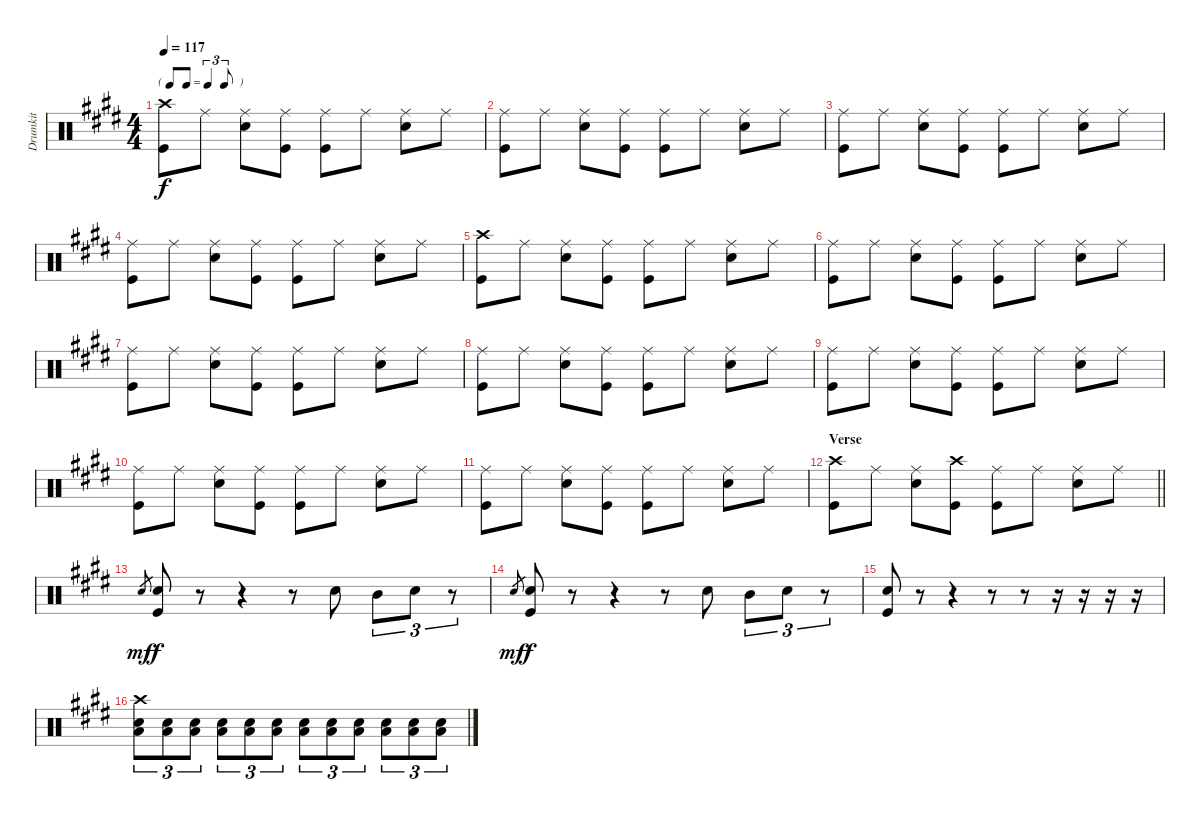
\track ("Drumkit" "Drumkit") {instrument percussion}
\staff {score}
\articulation defaults
\ts (4 4)
\tf triplet8th
\tempo 117
\clef neutral
\ks e
("Crash high (hit)" "Kick (hit)").8{dy f} "Ride (middle)".8 ("Ride (middle)" "Snare (hit) 2").8 ("Ride (middle)" "Kick (hit)").8 ("Ride (middle)" "Kick (hit)").8 "Ride (middle)".8 ("Ride (middle)" "Snare (hit) 2").8 "Ride (middle)".8 |
("Ride (middle)" "Kick (hit)").8 "Ride (middle)".8 ("Ride (middle)" "Snare (hit) 2").8 ("Ride (middle)" "Kick (hit)").8 ("Ride (middle)" "Kick (hit)").8 "Ride (middle)".8 ("Ride (middle)" "Snare (hit) 2").8 "Ride (middle)".8 |
("Ride (middle)" "Kick (hit)").8 "Ride (middle)".8 ("Ride (middle)" "Snare (hit) 2").8 ("Ride (middle)" "Kick (hit)").8 ("Ride (middle)" "Kick (hit)").8 "Ride (middle)".8 ("Ride (middle)" "Snare (hit) 2").8 "Ride (middle)".8 |
("Ride (middle)" "Kick (hit)").8 "Ride (middle)".8 ("Ride (middle)" "Snare (hit) 2").8 ("Ride (middle)" "Kick (hit)").8 ("Ride (middle)" "Kick (hit)").8 "Ride (middle)".8 ("Ride (middle)" "Snare (hit) 2").8 "Ride (middle)".8 |
("Crash high (hit)" "Kick (hit)").8 "Ride (middle)".8 ("Ride (middle)" "Snare (hit) 2").8 ("Ride (middle)" "Kick (hit)").8 ("Ride (middle)" "Kick (hit)").8 "Ride (middle)".8 ("Ride (middle)" "Snare (hit) 2").8 "Ride (middle)".8 |
("Ride (middle)" "Kick (hit)").8 "Ride (middle)".8 ("Ride (middle)" "Snare (hit) 2").8 ("Ride (middle)" "Kick (hit)").8 ("Ride (middle)" "Kick (hit)").8 "Ride (middle)".8 ("Ride (middle)" "Snare (hit) 2").8 "Ride (middle)".8 |
("Ride (middle)" "Kick (hit)").8 "Ride (middle)".8 ("Ride (middle)" "Snare (hit) 2").8 ("Ride (middle)" "Kick (hit)").8 ("Ride (middle)" "Kick (hit)").8 "Ride (middle)".8 ("Ride (middle)" "Snare (hit) 2").8 "Ride (middle)".8 |
("Ride (middle)" "Kick (hit)").8 "Ride (middle)".8 ("Ride (middle)" "Snare (hit) 2").8 ("Ride (middle)" "Kick (hit)").8 ("Ride (middle)" "Kick (hit)").8 "Ride (middle)".8 ("Ride (middle)" "Snare (hit) 2").8 "Ride (middle)".8 |
("Ride (middle)" "Kick (hit)").8 "Ride (middle)".8 ("Ride (middle)" "Snare (hit) 2").8 ("Ride (middle)" "Kick (hit)").8 ("Ride (middle)" "Kick (hit)").8 "Ride (middle)".8 ("Ride (middle)" "Snare (hit) 2").8 "Ride (middle)".8 |
("Ride (middle)" "Kick (hit)").8 "Ride (middle)".8 ("Ride (middle)" "Snare (hit) 2").8 ("Ride (middle)" "Kick (hit)").8 ("Ride (middle)" "Kick (hit)").8 "Ride (middle)".8 ("Ride (middle)" "Snare (hit) 2").8 "Ride (middle)".8 |
("Ride (middle)" "Kick (hit)").8 "Ride (middle)".8 ("Ride (middle)" "Snare (hit) 2").8 ("Ride (middle)" "Kick (hit)").8 ("Ride (middle)" "Kick (hit)").8 "Ride (middle)".8 ("Ride (middle)" "Snare (hit) 2").8 "Ride (middle)".8 |
\section ("" "Verse")
\barLineRight lightlight
("Crash high (hit)" "Kick (hit)").8 "Ride (middle)".8 ("Ride (middle)" "Snare (hit) 2").8 ("Crash high (hit)" "Kick (hit)").8 ("Ride (middle)" "Kick (hit)").8 "Ride (middle)".8 ("Ride (middle)" "Snare (hit) 2").8 "Ride (middle)".8 |
"Snare (hit)".8{gr dy mf} ("Snare (hit) 2" "Kick (hit)").8{dy f} r.8 r.4 r.8 "Snare (hit) 2".8 "Mid Tom (hit)".8{tu (3 2)} "Snare (hit) 2".8{tu (3 2)} r.8{tu (3 2)} |
"Snare (hit)".8{gr dy mf} ("Snare (hit) 2" "Kick (hit)").8{dy f} r.8 r.4 r.8 "Snare (hit) 2".8 "Mid Tom (hit)".8{tu (3 2)} "Snare (hit) 2".8{tu (3 2)} r.8{tu (3 2)} |
("Snare (hit) 2" "Kick (hit)").8 r.8 r.4 r.8 r.8 r.16 r.16 r.16 r.16 |
("Crash high (hit)" "Snare (hit) 2" "Low Floor Tom (hit)").8{tu (3 2)} ("Snare (hit) 2" "Low Floor Tom (hit)").8{tu (3 2)} ("Snare (hit) 2" "Low Floor Tom (hit)").8{tu (3 2)} ("Snare (hit) 2" "Low Floor Tom (hit)").8{tu (3 2)} ("Snare (hit) 2" "Low Floor Tom (hit)").8{tu (3 2)} ("Snare (hit) 2" "Low Floor Tom (hit)").8{tu (3 2)} ("Snare (hit) 2" "Low Floor Tom (hit)").8{tu (3 2)} ("Snare (hit) 2" "Low Floor Tom (hit)").8{tu (3 2)} ("Snare (hit) 2" "Low Floor Tom (hit)").8{tu (3 2)} ("Snare (hit) 2" "Low Floor Tom (hit)").8{tu (3 2)} ("Snare (hit) 2" "Low Floor Tom (hit)").8{tu (3 2)} ("Snare (hit) 2" "Low Floor Tom (hit)").8{tu (3 2)}
